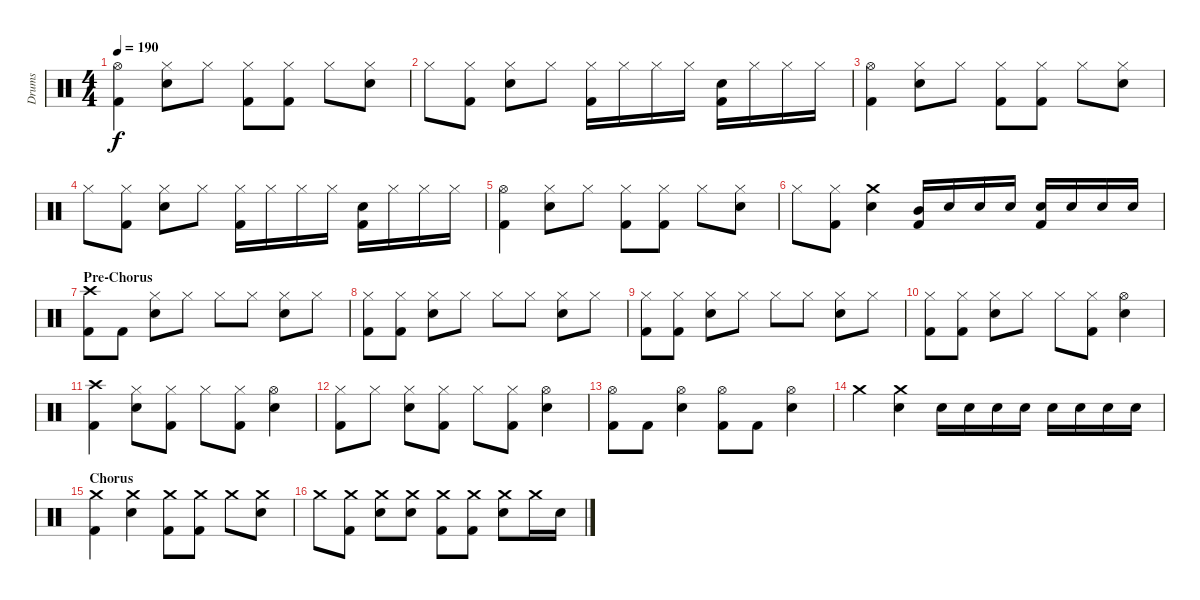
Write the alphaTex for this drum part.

\track ("Drums" "Drums") {instrument percussion}
\staff {score}
\articulation defaults
\ts (4 4)
\tempo 190
\clef neutral
\ks c
("Hi-Hat (open)" "Kick (hit) 2").4{dy f} ("Hi-Hat (closed)" "Snare (hit) 2").8 "Hi-Hat (closed)".8 ("Hi-Hat (closed)" "Kick (hit) 2").8 ("Hi-Hat (closed)" "Kick (hit) 2").8 "Hi-Hat (closed)".8 ("Hi-Hat (closed)" "Snare (hit) 2").8 |
"Hi-Hat (closed)".8 ("Hi-Hat (closed)" "Kick (hit) 2").8 ("Hi-Hat (closed)" "Snare (hit) 2").8 "Hi-Hat (closed)".8 ("Hi-Hat (closed)" "Kick (hit) 2").16 "Hi-Hat (closed)".16 "Hi-Hat (closed)".16 "Hi-Hat (closed)".16 ("Snare (hit) 2" "Kick (hit) 2").16 "Hi-Hat (closed)".16 "Hi-Hat (closed)".16 "Hi-Hat (closed)".16 |
("Hi-Hat (open)" "Kick (hit) 2").4 ("Hi-Hat (closed)" "Snare (hit) 2").8 "Hi-Hat (closed)".8 ("Hi-Hat (closed)" "Kick (hit) 2").8 ("Hi-Hat (closed)" "Kick (hit) 2").8 "Hi-Hat (closed)".8 ("Hi-Hat (closed)" "Snare (hit) 2").8 |
"Hi-Hat (closed)".8 ("Hi-Hat (closed)" "Kick (hit) 2").8 ("Hi-Hat (closed)" "Snare (hit) 2").8 "Hi-Hat (closed)".8 ("Hi-Hat (closed)" "Kick (hit) 2").16 "Hi-Hat (closed)".16 "Hi-Hat (closed)".16 "Hi-Hat (closed)".16 ("Snare (hit) 2" "Kick (hit) 2").16 "Hi-Hat (closed)".16 "Hi-Hat (closed)".16 "Hi-Hat (closed)".16 |
("Hi-Hat (open)" "Kick (hit) 2").4 ("Hi-Hat (closed)" "Snare (hit) 2").8 "Hi-Hat (closed)".8 ("Hi-Hat (closed)" "Kick (hit) 2").8 ("Hi-Hat (closed)" "Kick (hit) 2").8 "Hi-Hat (closed)".8 ("Hi-Hat (closed)" "Snare (hit) 2").8 |
"Hi-Hat (closed)".8 ("Hi-Hat (closed)" "Kick (hit) 2").8 ("Crash medium (hit)" "Snare (hit) 2").4 ("Mid Tom (hit)" "Kick (hit) 2").16 "Snare (hit) 2".16 "Snare (hit) 2".16 "Snare (hit) 2".16 ("Snare (hit) 2" "Kick (hit) 2").16 "Snare (hit) 2".16 "Snare (hit) 2".16 "Snare (hit) 2".16 |
\section ("" "Pre-Chorus")
("Crash high (hit)" "Kick (hit) 2").8 "Kick (hit) 2".8 ("Hi-Hat (closed)" "Snare (hit) 2").8 "Hi-Hat (closed)".8 "Hi-Hat (closed)".8 "Hi-Hat (closed)".8 ("Hi-Hat (closed)" "Snare (hit) 2").8 "Hi-Hat (closed)".8 |
("Hi-Hat (closed)" "Kick (hit) 2").8 ("Hi-Hat (closed)" "Kick (hit) 2").8 ("Hi-Hat (closed)" "Snare (hit) 2").8 "Hi-Hat (closed)".8 "Hi-Hat (closed)".8 "Hi-Hat (closed)".8 ("Hi-Hat (closed)" "Snare (hit) 2").8 "Hi-Hat (closed)".8 |
("Hi-Hat (closed)" "Kick (hit) 2").8 ("Hi-Hat (closed)" "Kick (hit) 2").8 ("Hi-Hat (closed)" "Snare (hit) 2").8 "Hi-Hat (closed)".8 "Hi-Hat (closed)".8 "Hi-Hat (closed)".8 ("Hi-Hat (closed)" "Snare (hit) 2").8 "Hi-Hat (closed)".8 |
("Hi-Hat (closed)" "Kick (hit) 2").8 ("Hi-Hat (closed)" "Kick (hit) 2").8 ("Hi-Hat (closed)" "Snare (hit) 2").8 "Hi-Hat (closed)".8 "Hi-Hat (closed)".8 ("Hi-Hat (closed)" "Kick (hit) 2").8 ("Hi-Hat (open)" "Snare (hit) 2").4 |
("Crash high (hit)" "Kick (hit) 2").4 ("Hi-Hat (closed)" "Snare (hit) 2").8 ("Hi-Hat (closed)" "Kick (hit) 2").8 "Hi-Hat (closed)".8 ("Hi-Hat (closed)" "Kick (hit) 2").8 ("Hi-Hat (open)" "Snare (hit) 2").4 |
("Hi-Hat (closed)" "Kick (hit) 2").8 "Hi-Hat (closed)".8 ("Hi-Hat (closed)" "Snare (hit) 2").8 ("Hi-Hat (closed)" "Kick (hit) 2").8 "Hi-Hat (closed)".8 ("Hi-Hat (closed)" "Kick (hit) 2").8 ("Hi-Hat (open)" "Snare (hit) 2").4 |
("Hi-Hat (open)" "Kick (hit) 2").8 "Kick (hit) 2".8 ("Hi-Hat (open)" "Snare (hit) 2").4 ("Hi-Hat (open)" "Kick (hit) 2").8 "Kick (hit) 2".8 ("Hi-Hat (open)" "Snare (hit) 2").4 |
"Crash medium (hit)".4 ("Crash medium (hit)" "Snare (hit) 2").4 "Snare (hit) 2".16 "Snare (hit) 2".16 "Snare (hit) 2".16 "Snare (hit) 2".16 "Snare (hit) 2".16 "Snare (hit) 2".16 "Snare (hit) 2".16 "Snare (hit) 2".16 |
\section ("" "Chorus")
("Crash medium (hit)" "Kick (hit) 2").4 ("Crash medium (hit)" "Snare (hit) 2").4 ("Crash medium (hit)" "Kick (hit) 2").8 ("Crash medium (hit)" "Kick (hit) 2").8 "Crash medium (hit)".8 ("Crash medium (hit)" "Snare (hit) 2").8 |
"Crash medium (hit)".8 ("Crash medium (hit)" "Kick (hit) 2").8 ("Crash medium (hit)" "Snare (hit) 2").8 ("Crash medium (hit)" "Snare (hit) 2").8 ("Crash medium (hit)" "Kick (hit) 2").8 ("Crash medium (hit)" "Kick (hit) 2").8 ("Crash medium (hit)" "Snare (hit) 2").8 "Crash medium (hit)".16 "Snare (hit) 2".16
